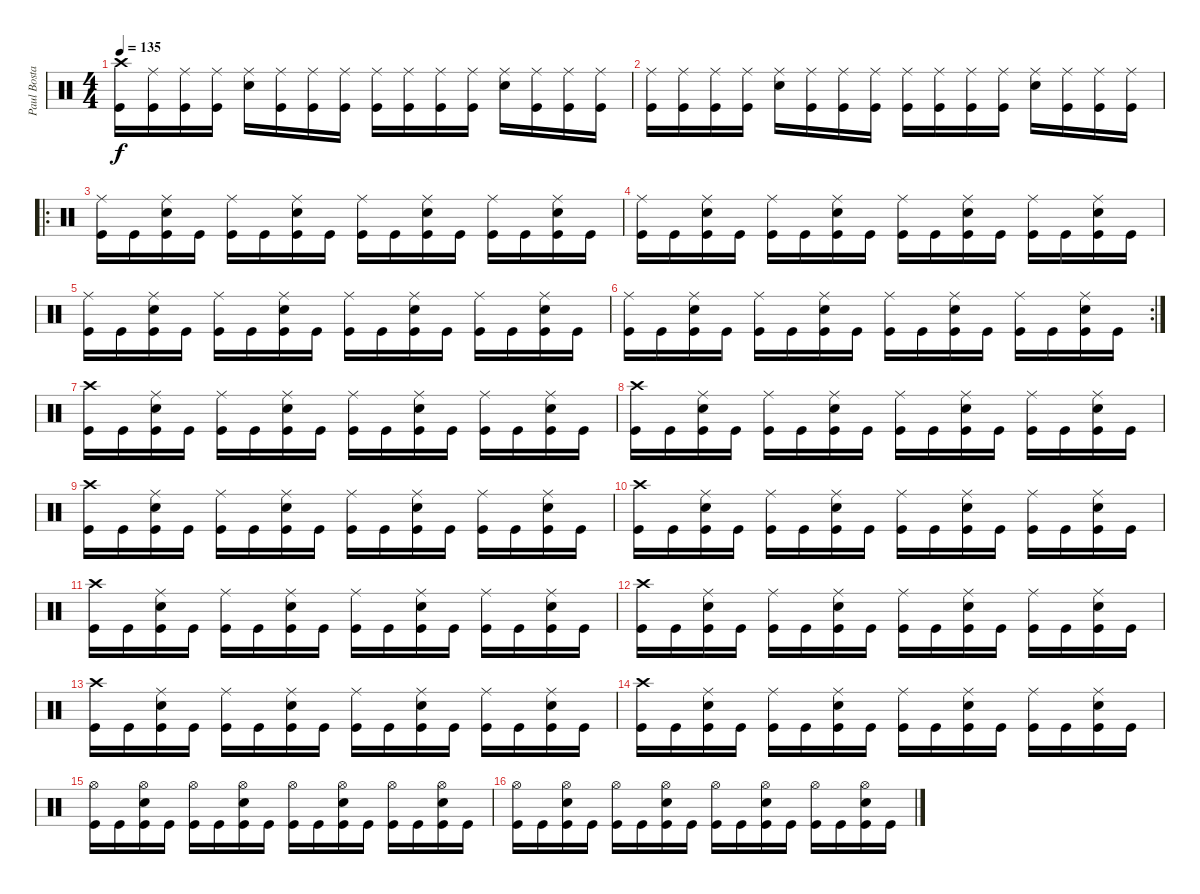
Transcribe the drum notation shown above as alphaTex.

\track ("Paul Bostaph" "Paul Bosta") {instrument percussion}
\staff {score}
\articulation defaults
\ts (4 4)
\tempo 135
\clef neutral
\ks c
("Kick (hit)" "Crash high (hit)").16{dy f} ("Kick (hit)" "Ride (middle)").16 ("Kick (hit)" "Ride (middle)").16 ("Kick (hit)" "Ride (middle)").16 ("Snare (hit) 2" "Ride (middle)").16 ("Kick (hit)" "Ride (middle)").16 ("Kick (hit)" "Ride (middle)").16 ("Kick (hit)" "Ride (middle)").16 ("Kick (hit)" "Ride (middle)").16 ("Kick (hit)" "Ride (middle)").16 ("Kick (hit)" "Ride (middle)").16 ("Kick (hit)" "Ride (middle)").16 ("Snare (hit) 2" "Ride (middle)").16 ("Kick (hit)" "Ride (middle)").16 ("Kick (hit)" "Ride (middle)").16 ("Kick (hit)" "Ride (middle)").16 |
("Kick (hit)" "Ride (middle)").16 ("Kick (hit)" "Ride (middle)").16 ("Kick (hit)" "Ride (middle)").16 ("Kick (hit)" "Ride (middle)").16 ("Snare (hit) 2" "Ride (middle)").16 ("Kick (hit)" "Ride (middle)").16 ("Kick (hit)" "Ride (middle)").16 ("Kick (hit)" "Ride (middle)").16 ("Kick (hit)" "Ride (middle)").16 ("Kick (hit)" "Ride (middle)").16 ("Kick (hit)" "Ride (middle)").16 ("Kick (hit)" "Ride (middle)").16 ("Snare (hit) 2" "Ride (middle)").16 ("Kick (hit)" "Ride (middle)").16 ("Kick (hit)" "Ride (middle)").16 ("Kick (hit)" "Ride (middle)").16 |
\ro
("Ride (middle)" "Kick (hit)").16 "Kick (hit)".16 ("Ride (middle)" "Snare (hit) 2" "Kick (hit)").16 "Kick (hit)".16 ("Ride (middle)" "Kick (hit)").16 "Kick (hit)".16 ("Ride (middle)" "Snare (hit) 2" "Kick (hit)").16 "Kick (hit)".16 ("Ride (middle)" "Kick (hit)").16 "Kick (hit)".16 ("Ride (middle)" "Snare (hit) 2" "Kick (hit)").16 "Kick (hit)".16 ("Ride (middle)" "Kick (hit)").16 "Kick (hit)".16 ("Ride (middle)" "Snare (hit) 2" "Kick (hit)").16 "Kick (hit)".16 |
("Ride (middle)" "Kick (hit)").16 "Kick (hit)".16 ("Ride (middle)" "Snare (hit) 2" "Kick (hit)").16 "Kick (hit)".16 ("Ride (middle)" "Kick (hit)").16 "Kick (hit)".16 ("Ride (middle)" "Snare (hit) 2" "Kick (hit)").16 "Kick (hit)".16 ("Ride (middle)" "Kick (hit)").16 "Kick (hit)".16 ("Ride (middle)" "Snare (hit) 2" "Kick (hit)").16 "Kick (hit)".16 ("Ride (middle)" "Kick (hit)").16 "Kick (hit)".16 ("Ride (middle)" "Snare (hit) 2" "Kick (hit)").16 "Kick (hit)".16 |
("Ride (middle)" "Kick (hit)").16 "Kick (hit)".16 ("Ride (middle)" "Snare (hit) 2" "Kick (hit)").16 "Kick (hit)".16 ("Ride (middle)" "Kick (hit)").16 "Kick (hit)".16 ("Ride (middle)" "Snare (hit) 2" "Kick (hit)").16 "Kick (hit)".16 ("Ride (middle)" "Kick (hit)").16 "Kick (hit)".16 ("Ride (middle)" "Snare (hit) 2" "Kick (hit)").16 "Kick (hit)".16 ("Ride (middle)" "Kick (hit)").16 "Kick (hit)".16 ("Ride (middle)" "Snare (hit) 2" "Kick (hit)").16 "Kick (hit)".16 |
\rc 2
("Ride (middle)" "Kick (hit)").16 "Kick (hit)".16 ("Ride (middle)" "Snare (hit) 2" "Kick (hit)").16 "Kick (hit)".16 ("Ride (middle)" "Kick (hit)").16 "Kick (hit)".16 ("Ride (middle)" "Snare (hit) 2" "Kick (hit)").16 "Kick (hit)".16 ("Ride (middle)" "Kick (hit)").16 "Kick (hit)".16 ("Ride (middle)" "Snare (hit) 2" "Kick (hit)").16 "Kick (hit)".16 ("Ride (middle)" "Kick (hit)").16 "Kick (hit)".16 ("Ride (middle)" "Snare (hit) 2" "Kick (hit)").16 "Kick (hit)".16 |
("Crash high (hit)" "Kick (hit)").16 "Kick (hit)".16 ("Ride (middle)" "Snare (hit) 2" "Kick (hit)").16 "Kick (hit)".16 ("Ride (middle)" "Kick (hit)").16 "Kick (hit)".16 ("Ride (middle)" "Snare (hit) 2" "Kick (hit)").16 "Kick (hit)".16 ("Ride (middle)" "Kick (hit)").16 "Kick (hit)".16 ("Ride (middle)" "Snare (hit) 2" "Kick (hit)").16 "Kick (hit)".16 ("Ride (middle)" "Kick (hit)").16 "Kick (hit)".16 ("Ride (middle)" "Snare (hit) 2" "Kick (hit)").16 "Kick (hit)".16 |
("Crash high (hit)" "Kick (hit)").16 "Kick (hit)".16 ("Ride (middle)" "Snare (hit) 2" "Kick (hit)").16 "Kick (hit)".16 ("Ride (middle)" "Kick (hit)").16 "Kick (hit)".16 ("Ride (middle)" "Snare (hit) 2" "Kick (hit)").16 "Kick (hit)".16 ("Ride (middle)" "Kick (hit)").16 "Kick (hit)".16 ("Ride (middle)" "Snare (hit) 2" "Kick (hit)").16 "Kick (hit)".16 ("Ride (middle)" "Kick (hit)").16 "Kick (hit)".16 ("Ride (middle)" "Snare (hit) 2" "Kick (hit)").16 "Kick (hit)".16 |
("Crash high (hit)" "Kick (hit)").16 "Kick (hit)".16 ("Ride (middle)" "Snare (hit) 2" "Kick (hit)").16 "Kick (hit)".16 ("Ride (middle)" "Kick (hit)").16 "Kick (hit)".16 ("Ride (middle)" "Snare (hit) 2" "Kick (hit)").16 "Kick (hit)".16 ("Ride (middle)" "Kick (hit)").16 "Kick (hit)".16 ("Ride (middle)" "Snare (hit) 2" "Kick (hit)").16 "Kick (hit)".16 ("Ride (middle)" "Kick (hit)").16 "Kick (hit)".16 ("Ride (middle)" "Snare (hit) 2" "Kick (hit)").16 "Kick (hit)".16 |
("Crash high (hit)" "Kick (hit)").16 "Kick (hit)".16 ("Ride (middle)" "Snare (hit) 2" "Kick (hit)").16 "Kick (hit)".16 ("Ride (middle)" "Kick (hit)").16 "Kick (hit)".16 ("Ride (middle)" "Snare (hit) 2" "Kick (hit)").16 "Kick (hit)".16 ("Ride (middle)" "Kick (hit)").16 "Kick (hit)".16 ("Ride (middle)" "Snare (hit) 2" "Kick (hit)").16 "Kick (hit)".16 ("Ride (middle)" "Kick (hit)").16 "Kick (hit)".16 ("Ride (middle)" "Snare (hit) 2" "Kick (hit)").16 "Kick (hit)".16 |
("Crash high (hit)" "Kick (hit)").16 "Kick (hit)".16 ("Ride (middle)" "Snare (hit) 2" "Kick (hit)").16 "Kick (hit)".16 ("Ride (middle)" "Kick (hit)").16 "Kick (hit)".16 ("Ride (middle)" "Snare (hit) 2" "Kick (hit)").16 "Kick (hit)".16 ("Ride (middle)" "Kick (hit)").16 "Kick (hit)".16 ("Ride (middle)" "Snare (hit) 2" "Kick (hit)").16 "Kick (hit)".16 ("Ride (middle)" "Kick (hit)").16 "Kick (hit)".16 ("Ride (middle)" "Snare (hit) 2" "Kick (hit)").16 "Kick (hit)".16 |
("Crash high (hit)" "Kick (hit)").16 "Kick (hit)".16 ("Ride (middle)" "Snare (hit) 2" "Kick (hit)").16 "Kick (hit)".16 ("Ride (middle)" "Kick (hit)").16 "Kick (hit)".16 ("Ride (middle)" "Snare (hit) 2" "Kick (hit)").16 "Kick (hit)".16 ("Ride (middle)" "Kick (hit)").16 "Kick (hit)".16 ("Ride (middle)" "Snare (hit) 2" "Kick (hit)").16 "Kick (hit)".16 ("Ride (middle)" "Kick (hit)").16 "Kick (hit)".16 ("Ride (middle)" "Snare (hit) 2" "Kick (hit)").16 "Kick (hit)".16 |
("Crash high (hit)" "Kick (hit)").16 "Kick (hit)".16 ("Ride (middle)" "Snare (hit) 2" "Kick (hit)").16 "Kick (hit)".16 ("Ride (middle)" "Kick (hit)").16 "Kick (hit)".16 ("Ride (middle)" "Snare (hit) 2" "Kick (hit)").16 "Kick (hit)".16 ("Ride (middle)" "Kick (hit)").16 "Kick (hit)".16 ("Ride (middle)" "Snare (hit) 2" "Kick (hit)").16 "Kick (hit)".16 ("Ride (middle)" "Kick (hit)").16 "Kick (hit)".16 ("Ride (middle)" "Snare (hit) 2" "Kick (hit)").16 "Kick (hit)".16 |
("Crash high (hit)" "Kick (hit)").16 "Kick (hit)".16 ("Ride (middle)" "Snare (hit) 2" "Kick (hit)").16 "Kick (hit)".16 ("Ride (middle)" "Kick (hit)").16 "Kick (hit)".16 ("Ride (middle)" "Snare (hit) 2" "Kick (hit)").16 "Kick (hit)".16 ("Ride (middle)" "Kick (hit)").16 "Kick (hit)".16 ("Ride (middle)" "Snare (hit) 2" "Kick (hit)").16 "Kick (hit)".16 ("Ride (middle)" "Kick (hit)").16 "Kick (hit)".16 ("Ride (middle)" "Snare (hit) 2" "Kick (hit)").16 "Kick (hit)".16 |
("Hi-Hat (open)" "Kick (hit)").16 "Kick (hit)".16 ("Hi-Hat (open)" "Snare (hit) 2" "Kick (hit)").16 "Kick (hit)".16 ("Hi-Hat (open)" "Kick (hit)").16 "Kick (hit)".16 ("Hi-Hat (open)" "Snare (hit) 2" "Kick (hit)").16 "Kick (hit)".16 ("Hi-Hat (open)" "Kick (hit)").16 "Kick (hit)".16 ("Hi-Hat (open)" "Snare (hit) 2" "Kick (hit)").16 "Kick (hit)".16 ("Hi-Hat (open)" "Kick (hit)").16 "Kick (hit)".16 ("Hi-Hat (open)" "Snare (hit) 2" "Kick (hit)").16 "Kick (hit)".16 |
("Hi-Hat (open)" "Kick (hit)").16 "Kick (hit)".16 ("Hi-Hat (open)" "Snare (hit) 2" "Kick (hit)").16 "Kick (hit)".16 ("Hi-Hat (open)" "Kick (hit)").16 "Kick (hit)".16 ("Hi-Hat (open)" "Snare (hit) 2" "Kick (hit)").16 "Kick (hit)".16 ("Hi-Hat (open)" "Kick (hit)").16 "Kick (hit)".16 ("Hi-Hat (open)" "Snare (hit) 2" "Kick (hit)").16 "Kick (hit)".16 ("Hi-Hat (open)" "Kick (hit)").16 "Kick (hit)".16 ("Hi-Hat (open)" "Snare (hit) 2" "Kick (hit)").16 "Kick (hit)".16
